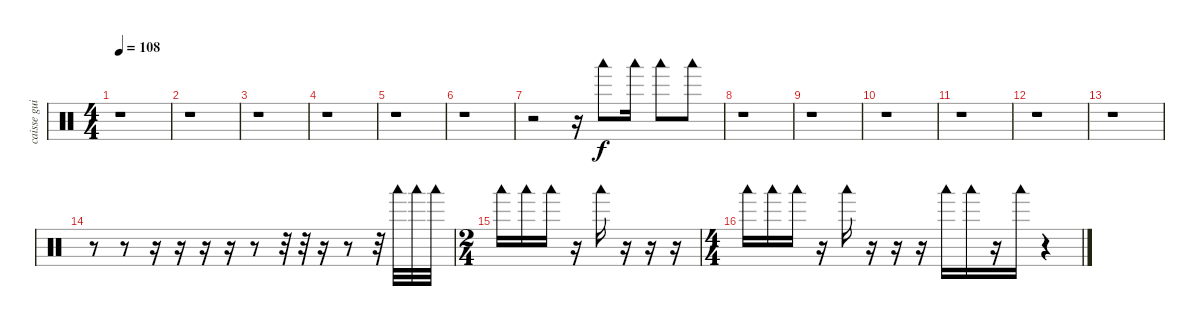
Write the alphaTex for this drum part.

\track ("caisse guitare Di Meola" "caisse gui") {instrument percussion}
\staff {score}
\articulation defaults
\ts (4 4)
\tempo 108
\clef neutral
\ks c
r.1{dy f} |
r.1 |
r.1 |
r.1 |
r.1 |
r.1 |
r.2 r.16 "Woodblock low (hit)".8 "Woodblock low (hit)".16 "Woodblock low (hit)".8 "Woodblock low (hit)".8 |
r.1 |
r.1 |
r.1 |
r.1 |
r.1 |
r.1 |
r.8 r.8 r.16 r.16 r.16 r.16 r.8 r.32 r.32 r.16 r.8 r.32 "Woodblock low (hit)".32 "Woodblock low (hit)".32 "Woodblock low (hit)".32 |
\ts (2 4)
"Woodblock low (hit)".16 "Woodblock low (hit)".16 "Woodblock low (hit)".16 r.16 "Woodblock low (hit)".16 r.16 r.16 r.16 |
\ts (4 4)
"Woodblock low (hit)".16 "Woodblock low (hit)".16 "Woodblock low (hit)".16 r.16 "Woodblock low (hit)".16 r.16 r.16 r.16 "Woodblock low (hit)".16 "Woodblock low (hit)".16 r.16 "Woodblock low (hit)".16 r.4
